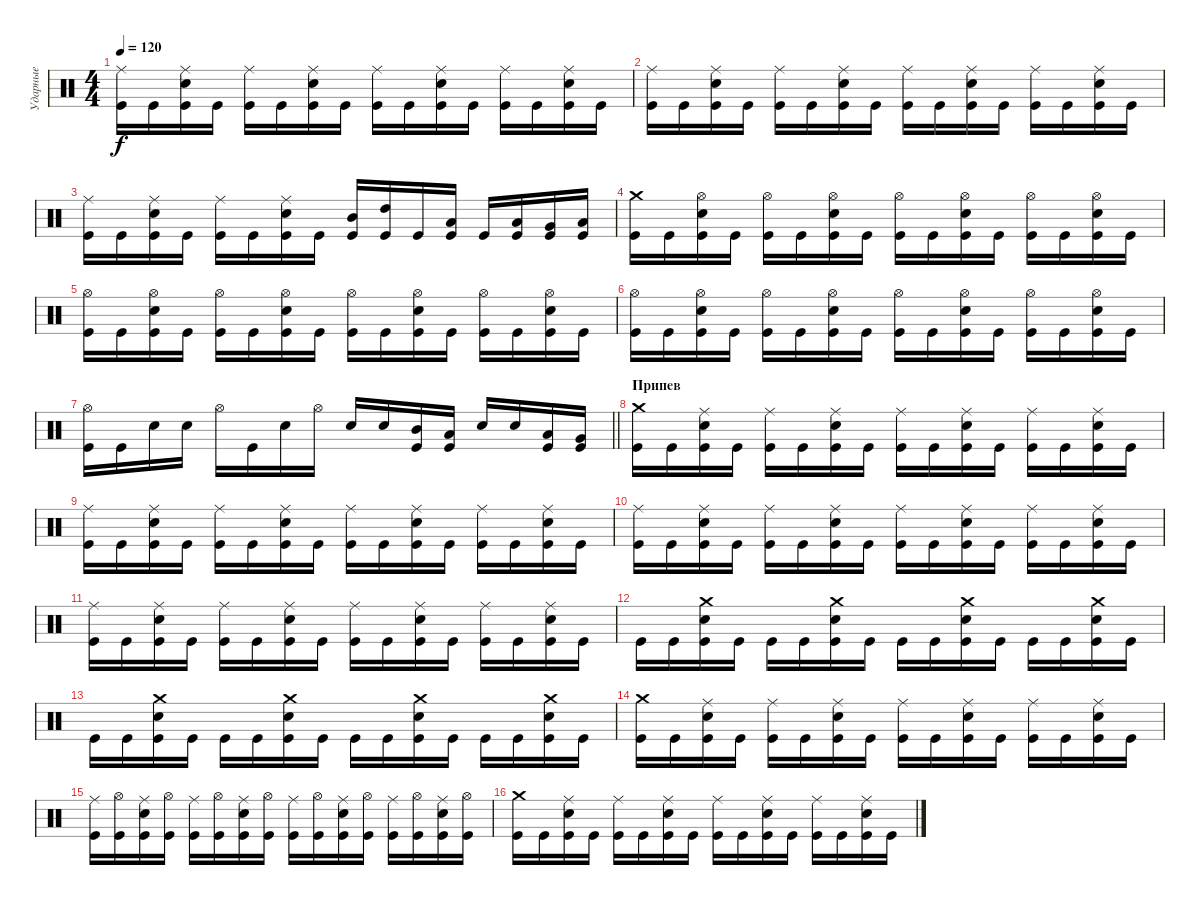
\track ("Ударные" "Ударные") {instrument percussion}
\staff {score}
\articulation defaults
\ts (4 4)
\tempo 120
\clef neutral
\ks c
("Kick (hit)" "Ride (middle)").16{dy f} "Kick (hit)".16 ("Kick (hit)" "Snare (hit) 2" "Ride (middle)").16 "Kick (hit)".16 ("Kick (hit)" "Ride (middle)").16 "Kick (hit)".16 ("Kick (hit)" "Snare (hit) 2" "Ride (middle)").16 "Kick (hit)".16 ("Kick (hit)" "Ride (middle)").16 "Kick (hit)".16 ("Kick (hit)" "Snare (hit) 2" "Ride (middle)").16 "Kick (hit)".16 ("Kick (hit)" "Ride (middle)").16 "Kick (hit)".16 ("Kick (hit)" "Snare (hit) 2" "Ride (middle)").16 "Kick (hit)".16 |
("Kick (hit)" "Ride (middle)").16 "Kick (hit)".16 ("Kick (hit)" "Snare (hit) 2" "Ride (middle)").16 "Kick (hit)".16 ("Kick (hit)" "Ride (middle)").16 "Kick (hit)".16 ("Kick (hit)" "Snare (hit) 2" "Ride (middle)").16 "Kick (hit)".16 ("Kick (hit)" "Ride (middle)").16 "Kick (hit)".16 ("Kick (hit)" "Snare (hit) 2" "Ride (middle)").16 "Kick (hit)".16 ("Kick (hit)" "Ride (middle)").16 "Kick (hit)".16 ("Kick (hit)" "Snare (hit) 2" "Ride (middle)").16 "Kick (hit)".16 |
("Kick (hit)" "Ride (middle)").16 "Kick (hit)".16 ("Kick (hit)" "Snare (hit) 2" "Ride (middle)").16 "Kick (hit)".16 ("Kick (hit)" "Ride (middle)").16 "Kick (hit)".16 ("Kick (hit)" "Snare (hit) 2" "Ride (middle)").16 "Kick (hit)".16 ("Kick (hit)" "Mid Tom (hit)").16 ("Kick (hit)" "High Tom (hit)").16 "Kick (hit)".16 ("Kick (hit)" "Low Tom (hit)").16 "Kick (hit)".16 ("Kick (hit)" "Low Tom (hit)").16 ("Kick (hit)" "Very Low Tom (hit)").16 ("Kick (hit)" "Low Floor Tom (hit)").16 |
("Kick (hit)" "Crash medium (hit)").16 "Kick (hit)".16 ("Kick (hit)" "Snare (hit) 2" "Hi-Hat (open)").16 "Kick (hit)".16 ("Kick (hit)" "Hi-Hat (open)").16 "Kick (hit)".16 ("Kick (hit)" "Snare (hit) 2" "Hi-Hat (open)").16 "Kick (hit)".16 ("Kick (hit)" "Hi-Hat (open)").16 "Kick (hit)".16 ("Kick (hit)" "Snare (hit) 2" "Hi-Hat (open)").16 "Kick (hit)".16 ("Kick (hit)" "Hi-Hat (open)").16 "Kick (hit)".16 ("Kick (hit)" "Snare (hit) 2" "Hi-Hat (open)").16 "Kick (hit)".16 |
("Kick (hit)" "Hi-Hat (open)").16 "Kick (hit)".16 ("Kick (hit)" "Snare (hit) 2" "Hi-Hat (open)").16 "Kick (hit)".16 ("Kick (hit)" "Hi-Hat (open)").16 "Kick (hit)".16 ("Kick (hit)" "Snare (hit) 2" "Hi-Hat (open)").16 "Kick (hit)".16 ("Kick (hit)" "Hi-Hat (open)").16 "Kick (hit)".16 ("Kick (hit)" "Snare (hit) 2" "Hi-Hat (open)").16 "Kick (hit)".16 ("Kick (hit)" "Hi-Hat (open)").16 "Kick (hit)".16 ("Kick (hit)" "Snare (hit) 2" "Hi-Hat (open)").16 "Kick (hit)".16 |
("Kick (hit)" "Hi-Hat (open)").16 "Kick (hit)".16 ("Kick (hit)" "Snare (hit) 2" "Hi-Hat (open)").16 "Kick (hit)".16 ("Kick (hit)" "Hi-Hat (open)").16 "Kick (hit)".16 ("Kick (hit)" "Snare (hit) 2" "Hi-Hat (open)").16 "Kick (hit)".16 ("Kick (hit)" "Hi-Hat (open)").16 "Kick (hit)".16 ("Kick (hit)" "Snare (hit) 2" "Hi-Hat (open)").16 "Kick (hit)".16 ("Kick (hit)" "Hi-Hat (open)").16 "Kick (hit)".16 ("Kick (hit)" "Snare (hit) 2" "Hi-Hat (open)").16 "Kick (hit)".16 |
\barLineRight lightlight
("Kick (hit)" "Hi-Hat (open)").16 "Kick (hit)".16 "Snare (hit) 2".16 "Snare (hit) 2".16 "Hi-Hat (open)".16 "Kick (hit)".16 "Snare (hit) 2".16 "Hi-Hat (open)".16 "Snare (hit) 2".16 "Snare (hit) 2".16 ("Kick (hit)" "Mid Tom (hit)").16 ("Kick (hit)" "Low Tom (hit)").16 "Snare (hit) 2".16 "Snare (hit) 2".16 ("Kick (hit)" "Low Tom (hit)").16 ("Kick (hit)" "Very Low Tom (hit)").16 |
\section ("" "Припев")
("Kick (hit)" "Crash medium (hit)").16 "Kick (hit)".16 ("Kick (hit)" "Snare (hit) 2" "Ride (middle)").16 "Kick (hit)".16 ("Kick (hit)" "Ride (middle)").16 "Kick (hit)".16 ("Kick (hit)" "Snare (hit) 2" "Ride (middle)").16 "Kick (hit)".16 ("Kick (hit)" "Ride (middle)").16 "Kick (hit)".16 ("Kick (hit)" "Snare (hit) 2" "Ride (middle)").16 "Kick (hit)".16 ("Kick (hit)" "Ride (middle)").16 "Kick (hit)".16 ("Kick (hit)" "Snare (hit) 2" "Ride (middle)").16 "Kick (hit)".16 |
("Kick (hit)" "Ride (middle)").16 "Kick (hit)".16 ("Kick (hit)" "Snare (hit) 2" "Ride (middle)").16 "Kick (hit)".16 ("Kick (hit)" "Ride (middle)").16 "Kick (hit)".16 ("Kick (hit)" "Snare (hit) 2" "Ride (middle)").16 "Kick (hit)".16 ("Kick (hit)" "Ride (middle)").16 "Kick (hit)".16 ("Kick (hit)" "Snare (hit) 2" "Ride (middle)").16 "Kick (hit)".16 ("Kick (hit)" "Ride (middle)").16 "Kick (hit)".16 ("Kick (hit)" "Snare (hit) 2" "Ride (middle)").16 "Kick (hit)".16 |
("Kick (hit)" "Ride (middle)").16 "Kick (hit)".16 ("Kick (hit)" "Snare (hit) 2" "Ride (middle)").16 "Kick (hit)".16 ("Kick (hit)" "Ride (middle)").16 "Kick (hit)".16 ("Kick (hit)" "Snare (hit) 2" "Ride (middle)").16 "Kick (hit)".16 ("Kick (hit)" "Ride (middle)").16 "Kick (hit)".16 ("Kick (hit)" "Snare (hit) 2" "Ride (middle)").16 "Kick (hit)".16 ("Kick (hit)" "Ride (middle)").16 "Kick (hit)".16 ("Kick (hit)" "Snare (hit) 2" "Ride (middle)").16 "Kick (hit)".16 |
("Kick (hit)" "Ride (middle)").16 "Kick (hit)".16 ("Kick (hit)" "Snare (hit) 2" "Ride (middle)").16 "Kick (hit)".16 ("Kick (hit)" "Ride (middle)").16 "Kick (hit)".16 ("Kick (hit)" "Snare (hit) 2" "Ride (middle)").16 "Kick (hit)".16 ("Kick (hit)" "Ride (middle)").16 "Kick (hit)".16 ("Kick (hit)" "Snare (hit) 2" "Ride (middle)").16 "Kick (hit)".16 ("Kick (hit)" "Ride (middle)").16 "Kick (hit)".16 ("Kick (hit)" "Snare (hit) 2" "Ride (middle)").16 "Kick (hit)".16 |
"Kick (hit)".16 "Kick (hit)".16 ("Kick (hit)" "Snare (hit) 2" "Crash medium (hit)").16 "Kick (hit)".16 "Kick (hit)".16 "Kick (hit)".16 ("Kick (hit)" "Snare (hit) 2" "Crash medium (hit)").16 "Kick (hit)".16 "Kick (hit)".16 "Kick (hit)".16 ("Kick (hit)" "Snare (hit) 2" "Crash medium (hit)").16 "Kick (hit)".16 "Kick (hit)".16 "Kick (hit)".16 ("Kick (hit)" "Snare (hit) 2" "Crash medium (hit)").16 "Kick (hit)".16 |
"Kick (hit)".16 "Kick (hit)".16 ("Kick (hit)" "Snare (hit) 2" "Crash medium (hit)").16 "Kick (hit)".16 "Kick (hit)".16 "Kick (hit)".16 ("Kick (hit)" "Snare (hit) 2" "Crash medium (hit)").16 "Kick (hit)".16 "Kick (hit)".16 "Kick (hit)".16 ("Kick (hit)" "Snare (hit) 2" "Crash medium (hit)").16 "Kick (hit)".16 "Kick (hit)".16 "Kick (hit)".16 ("Kick (hit)" "Snare (hit) 2" "Crash medium (hit)").16 "Kick (hit)".16 |
("Kick (hit)" "Crash medium (hit)").16 "Kick (hit)".16 ("Kick (hit)" "Snare (hit) 2" "Ride (middle)").16 "Kick (hit)".16 ("Kick (hit)" "Ride (middle)").16 "Kick (hit)".16 ("Kick (hit)" "Snare (hit) 2" "Ride (middle)").16 "Kick (hit)".16 ("Kick (hit)" "Ride (middle)").16 "Kick (hit)".16 ("Kick (hit)" "Snare (hit) 2" "Ride (middle)").16 "Kick (hit)".16 ("Kick (hit)" "Ride (middle)").16 "Kick (hit)".16 ("Kick (hit)" "Snare (hit) 2" "Ride (middle)").16 "Kick (hit)".16 |
("Kick (hit)" "Ride (middle)").16 ("Kick (hit)" "Hi-Hat (open)").16 ("Kick (hit)" "Snare (hit) 2" "Ride (middle)").16 ("Kick (hit)" "Hi-Hat (open)").16 ("Kick (hit)" "Ride (middle)").16 ("Kick (hit)" "Hi-Hat (open)").16 ("Kick (hit)" "Snare (hit) 2" "Ride (middle)").16 ("Kick (hit)" "Hi-Hat (open)").16 ("Kick (hit)" "Ride (middle)").16 ("Kick (hit)" "Hi-Hat (open)").16 ("Kick (hit)" "Snare (hit) 2" "Ride (middle)").16 ("Kick (hit)" "Hi-Hat (open)").16 ("Kick (hit)" "Ride (middle)").16 ("Kick (hit)" "Hi-Hat (open)").16 ("Kick (hit)" "Snare (hit) 2" "Ride (middle)").16 ("Kick (hit)" "Hi-Hat (open)").16 |
("Kick (hit)" "Crash medium (hit)").16 "Kick (hit)".16 ("Kick (hit)" "Snare (hit) 2" "Ride (middle)").16 "Kick (hit)".16 ("Kick (hit)" "Ride (middle)").16 "Kick (hit)".16 ("Kick (hit)" "Snare (hit) 2" "Ride (middle)").16 "Kick (hit)".16 ("Kick (hit)" "Ride (middle)").16 "Kick (hit)".16 ("Kick (hit)" "Snare (hit) 2" "Ride (middle)").16 "Kick (hit)".16 ("Kick (hit)" "Ride (middle)").16 "Kick (hit)".16 ("Kick (hit)" "Snare (hit) 2" "Ride (middle)").16 "Kick (hit)".16
